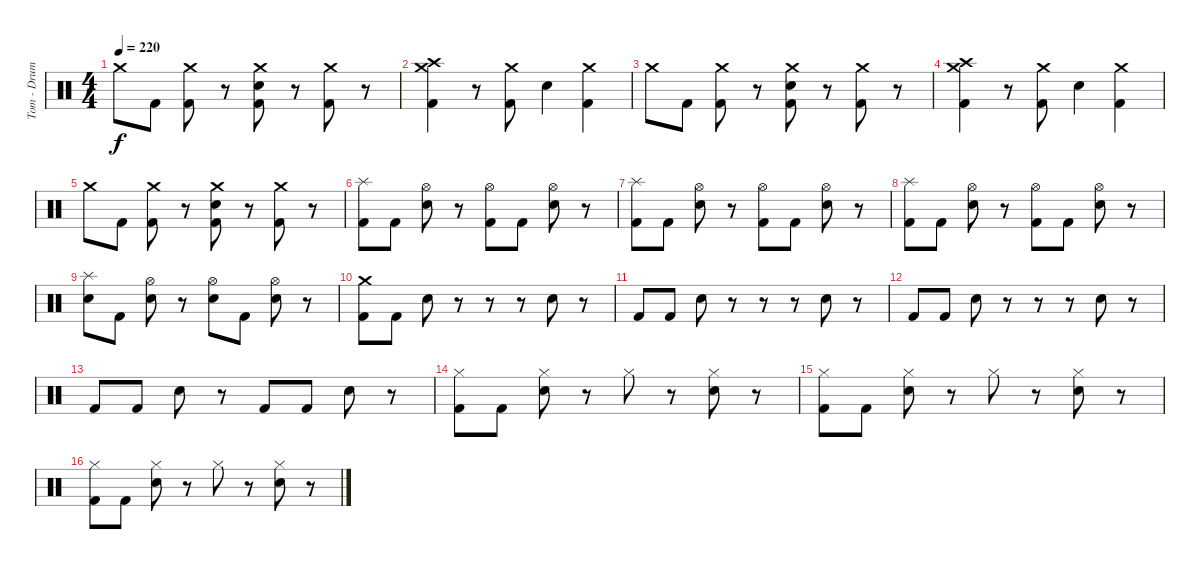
\track ("Tom - Drums" "Tom - Drum") {instrument percussion}
\staff {score}
\articulation defaults
\ts (4 4)
\tempo 220
\clef neutral
\ks c "Crash medium (hit)".8{dy f} "Kick (hit) 2".8
("Crash medium (hit)" "Kick (hit) 2").8 r.8 ("Crash medium (hit)" "Electric Snare (hit)" "Kick (hit) 2").8 r.8 ("Crash medium (hit)" "Kick (hit) 2").8 r.8 |
("Crash high (hit)" "Crash medium (hit)" "Kick (hit) 2").4 r.8 ("Crash medium (hit)" "Kick (hit) 2").8 "Electric Snare (hit)".4 ("Crash medium (hit)" "Kick (hit) 2").4 |
"Crash medium (hit)".8 "Kick (hit) 2".8 ("Crash medium (hit)" "Kick (hit) 2").8 r.8 ("Crash medium (hit)" "Electric Snare (hit)" "Kick (hit) 2").8 r.8 ("Crash medium (hit)" "Kick (hit) 2").8 r.8 |
("Crash high (hit)" "Crash medium (hit)" "Kick (hit) 2").4 r.8 ("Crash medium (hit)" "Kick (hit) 2").8 "Electric Snare (hit)".4 ("Crash medium (hit)" "Kick (hit) 2").4 |
"Crash medium (hit)".8 "Kick (hit) 2".8 ("Crash medium (hit)" "Kick (hit) 2").8 r.8 ("Crash medium (hit)" "Electric Snare (hit)" "Kick (hit) 2").8 r.8 ("Crash medium (hit)" "Kick (hit) 2").8 r.8 |
("Splash (hit)" "Kick (hit) 2").8 "Kick (hit) 2".8 ("Hi-Hat (open)" "Electric Snare (hit)").8 r.8 ("Hi-Hat (open)" "Kick (hit) 2").8 "Kick (hit) 2".8 ("Hi-Hat (open)" "Electric Snare (hit)").8 r.8 |
("Splash (hit)" "Kick (hit) 2").8 "Kick (hit) 2".8 ("Hi-Hat (open)" "Electric Snare (hit)").8 r.8 ("Hi-Hat (open)" "Kick (hit) 2").8 "Kick (hit) 2".8 ("Hi-Hat (open)" "Electric Snare (hit)").8 r.8 |
("Splash (hit)" "Kick (hit) 2").8 "Kick (hit) 2".8 ("Hi-Hat (open)" "Electric Snare (hit)").8 r.8 ("Hi-Hat (open)" "Kick (hit) 2").8 "Kick (hit) 2".8 ("Hi-Hat (open)" "Electric Snare (hit)").8 r.8 |
("Splash (hit)" "Electric Snare (hit)").8 "Kick (hit) 2".8 ("Hi-Hat (open)" "Electric Snare (hit)").8 r.8 ("Hi-Hat (open)" "Electric Snare (hit)").8 "Kick (hit) 2".8 ("Hi-Hat (open)" "Electric Snare (hit)").8 r.8 |
("Crash medium (hit)" "Kick (hit) 2").8 "Kick (hit) 2".8 "Electric Snare (hit)".8 r.8 r.8 r.8 "Electric Snare (hit)".8 r.8 |
"Kick (hit) 2".8 "Kick (hit) 2".8 "Electric Snare (hit)".8 r.8 r.8 r.8 "Electric Snare (hit)".8 r.8 |
"Kick (hit) 2".8 "Kick (hit) 2".8 "Electric Snare (hit)".8 r.8 r.8 r.8 "Electric Snare (hit)".8 r.8 |
"Kick (hit) 2".8 "Kick (hit) 2".8 "Electric Snare (hit)".8 r.8 "Kick (hit) 2".8 "Kick (hit) 2".8 "Electric Snare (hit)".8 r.8 |
("Hi-Hat (closed)" "Kick (hit) 2").8 "Kick (hit) 2".8 ("Hi-Hat (closed)" "Electric Snare (hit)").8 r.8 "Hi-Hat (closed)".8 r.8 ("Hi-Hat (closed)" "Electric Snare (hit)").8 r.8 |
("Hi-Hat (closed)" "Kick (hit) 2").8 "Kick (hit) 2".8 ("Hi-Hat (closed)" "Electric Snare (hit)").8 r.8 "Hi-Hat (closed)".8 r.8 ("Hi-Hat (closed)" "Electric Snare (hit)").8 r.8 |
("Hi-Hat (closed)" "Kick (hit) 2").8 "Kick (hit) 2".8 ("Hi-Hat (closed)" "Electric Snare (hit)").8 r.8 "Hi-Hat (closed)".8 r.8 ("Hi-Hat (closed)" "Electric Snare (hit)").8 r.8
